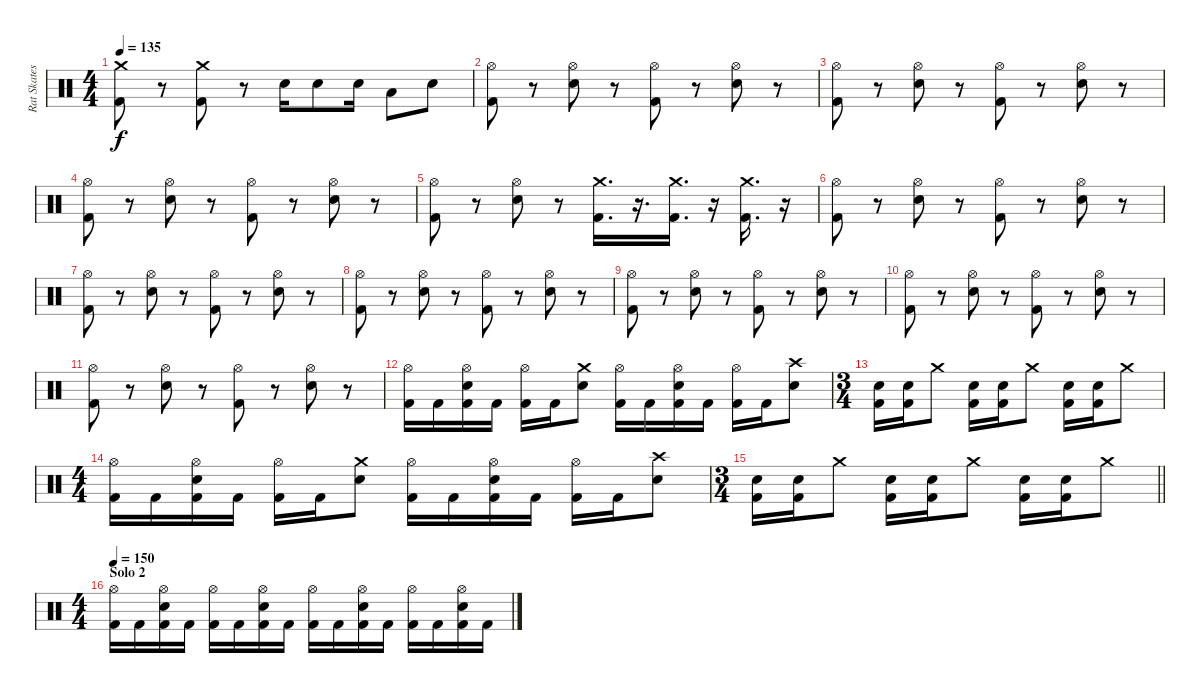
\track ("Rat Skates" "Rat Skates") {instrument percussion}
\staff {score}
\articulation defaults
\ts (4 4)
\tempo 135
\clef neutral
\ks c
("Crash medium (hit)" "Kick (hit) 2").8{dy f} r.8 ("Crash medium (hit)" "Kick (hit) 2").8 r.8 "Snare (hit) 2".16 "Snare (hit) 2".8 "Snare (hit) 2".16 "Low Tom (hit)".8 "Snare (hit) 2".8 |
("Hi-Hat (open)" "Kick (hit) 2").8 r.8 ("Hi-Hat (open)" "Snare (hit) 2").8 r.8 ("Hi-Hat (open)" "Kick (hit) 2").8 r.8 ("Hi-Hat (open)" "Snare (hit) 2").8 r.8 |
("Hi-Hat (open)" "Kick (hit) 2").8 r.8 ("Hi-Hat (open)" "Snare (hit) 2").8 r.8 ("Hi-Hat (open)" "Kick (hit) 2").8 r.8 ("Hi-Hat (open)" "Snare (hit) 2").8 r.8 |
("Hi-Hat (open)" "Kick (hit) 2").8 r.8 ("Hi-Hat (open)" "Snare (hit) 2").8 r.8 ("Hi-Hat (open)" "Kick (hit) 2").8 r.8 ("Hi-Hat (open)" "Snare (hit) 2").8 r.8 |
("Hi-Hat (open)" "Kick (hit) 2").8 r.8 ("Hi-Hat (open)" "Snare (hit) 2").8 r.8 ("Crash medium (hit)" "Kick (hit) 2").16{d} r.16{d} ("Crash medium (hit)" "Kick (hit) 2").16{d} r.16 ("Crash medium (hit)" "Kick (hit) 2").16{d} r.16 |
("Hi-Hat (open)" "Kick (hit) 2").8 r.8 ("Hi-Hat (open)" "Snare (hit) 2").8 r.8 ("Hi-Hat (open)" "Kick (hit) 2").8 r.8 ("Hi-Hat (open)" "Snare (hit) 2").8 r.8 |
("Hi-Hat (open)" "Kick (hit) 2").8 r.8 ("Hi-Hat (open)" "Snare (hit) 2").8 r.8 ("Hi-Hat (open)" "Kick (hit) 2").8 r.8 ("Hi-Hat (open)" "Snare (hit) 2").8 r.8 |
("Hi-Hat (open)" "Kick (hit) 2").8 r.8 ("Hi-Hat (open)" "Snare (hit) 2").8 r.8 ("Hi-Hat (open)" "Kick (hit) 2").8 r.8 ("Hi-Hat (open)" "Snare (hit) 2").8 r.8 |
("Hi-Hat (open)" "Kick (hit) 2").8 r.8 ("Hi-Hat (open)" "Snare (hit) 2").8 r.8 ("Hi-Hat (open)" "Kick (hit) 2").8 r.8 ("Hi-Hat (open)" "Snare (hit) 2").8 r.8 |
("Hi-Hat (open)" "Kick (hit) 2").8 r.8 ("Hi-Hat (open)" "Snare (hit) 2").8 r.8 ("Hi-Hat (open)" "Kick (hit) 2").8 r.8 ("Hi-Hat (open)" "Snare (hit) 2").8 r.8 |
("Hi-Hat (open)" "Kick (hit) 2").8 r.8 ("Hi-Hat (open)" "Snare (hit) 2").8 r.8 ("Hi-Hat (open)" "Kick (hit) 2").8 r.8 ("Hi-Hat (open)" "Snare (hit) 2").8 r.8 |
("Hi-Hat (open)" "Kick (hit) 2").16 "Kick (hit) 2".16 ("Hi-Hat (open)" "Snare (hit) 2" "Kick (hit) 2").16 "Kick (hit) 2".16 ("Hi-Hat (open)" "Kick (hit) 2").16 "Kick (hit) 2".16 ("Crash medium (hit)" "Snare (hit) 2").8 ("Hi-Hat (open)" "Kick (hit) 2").16 "Kick (hit) 2".16 ("Hi-Hat (open)" "Snare (hit) 2" "Kick (hit) 2").16 "Kick (hit) 2".16 ("Hi-Hat (open)" "Kick (hit) 2").16 "Kick (hit) 2".16 ("Crash high (hit)" "Snare (hit) 2").8 |
\ts (3 4)
("Snare (hit) 2" "Kick (hit) 2").16 ("Snare (hit) 2" "Kick (hit) 2").16 "Crash medium (hit)".8 ("Snare (hit) 2" "Kick (hit) 2").16 ("Snare (hit) 2" "Kick (hit) 2").16 "Crash medium (hit)".8 ("Snare (hit) 2" "Kick (hit) 2").16 ("Snare (hit) 2" "Kick (hit) 2").16 "Crash medium (hit)".8 |
\ts (4 4)
("Hi-Hat (open)" "Kick (hit) 2").16 "Kick (hit) 2".16 ("Hi-Hat (open)" "Snare (hit) 2" "Kick (hit) 2").16 "Kick (hit) 2".16 ("Hi-Hat (open)" "Kick (hit) 2").16 "Kick (hit) 2".16 ("Crash medium (hit)" "Snare (hit) 2").8 ("Hi-Hat (open)" "Kick (hit) 2").16 "Kick (hit) 2".16 ("Hi-Hat (open)" "Snare (hit) 2" "Kick (hit) 2").16 "Kick (hit) 2".16 ("Hi-Hat (open)" "Kick (hit) 2").16 "Kick (hit) 2".16 ("Crash high (hit)" "Snare (hit) 2").8 |
\ts (3 4)
\barLineRight lightlight
("Snare (hit) 2" "Kick (hit) 2").16 ("Snare (hit) 2" "Kick (hit) 2").16 "Crash medium (hit)".8 ("Snare (hit) 2" "Kick (hit) 2").16 ("Snare (hit) 2" "Kick (hit) 2").16 "Crash medium (hit)".8 ("Snare (hit) 2" "Kick (hit) 2").16 ("Snare (hit) 2" "Kick (hit) 2").16 "Crash medium (hit)".8 |
\ts (4 4)
\section ("" "Solo 2")
\tempo 150
("Hi-Hat (open)" "Kick (hit) 2").16 "Kick (hit) 2".16 ("Hi-Hat (open)" "Snare (hit) 2" "Kick (hit) 2").16 "Kick (hit) 2".16 ("Hi-Hat (open)" "Kick (hit) 2").16 "Kick (hit) 2".16 ("Hi-Hat (open)" "Snare (hit) 2" "Kick (hit) 2").16 "Kick (hit) 2".16 ("Hi-Hat (open)" "Kick (hit) 2").16 "Kick (hit) 2".16 ("Hi-Hat (open)" "Snare (hit) 2" "Kick (hit) 2").16 "Kick (hit) 2".16 ("Hi-Hat (open)" "Kick (hit) 2").16 "Kick (hit) 2".16 ("Hi-Hat (open)" "Snare (hit) 2" "Kick (hit) 2").16 "Kick (hit) 2".16
